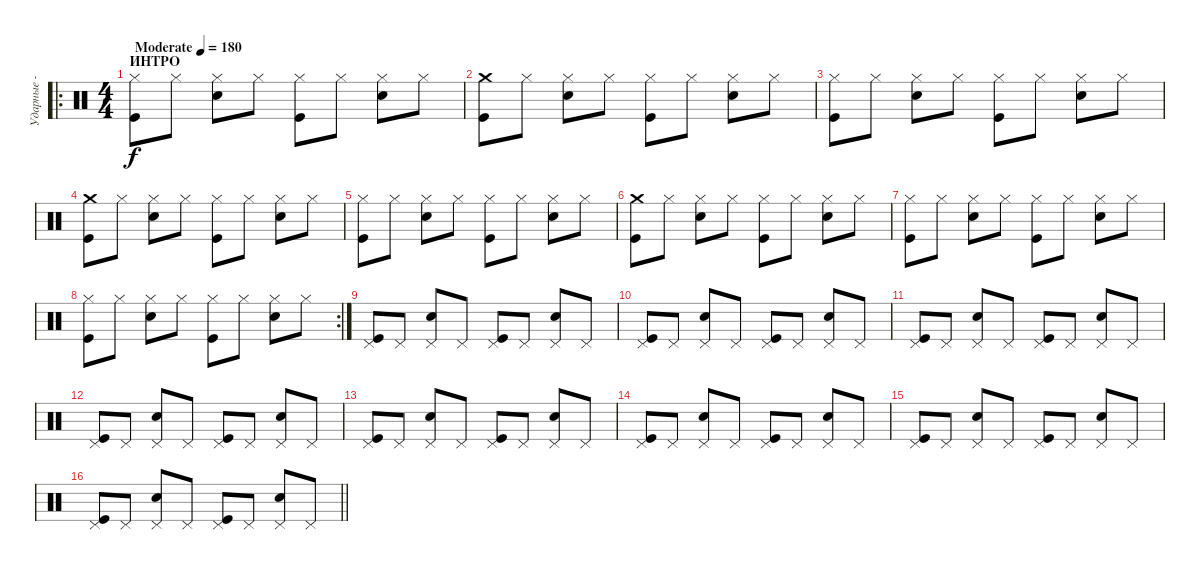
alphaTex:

\track ("Ударные - Томми Рамон" "Ударные - ") {instrument percussion}
\staff {score}
\articulation defaults
\ro
\ts (4 4)
\section ("" "ИНТРО")
\tempo (180 "Moderate")
\clef neutral
\ks c
("Hi-Hat (closed)" "Kick (hit)").8{dy f} "Hi-Hat (closed)".8 ("Hi-Hat (closed)" "Snare (hit) 2").8 "Hi-Hat (closed)".8 ("Hi-Hat (closed)" "Kick (hit)").8 "Hi-Hat (closed)".8 ("Hi-Hat (closed)" "Snare (hit) 2").8 "Hi-Hat (closed)".8 |
("Crash medium (hit)" "Kick (hit)").8 "Hi-Hat (closed)".8 ("Hi-Hat (closed)" "Snare (hit) 2").8 "Hi-Hat (closed)".8 ("Hi-Hat (closed)" "Kick (hit)").8 "Hi-Hat (closed)".8 ("Hi-Hat (closed)" "Snare (hit) 2").8 "Hi-Hat (closed)".8 |
("Hi-Hat (closed)" "Kick (hit)").8 "Hi-Hat (closed)".8 ("Hi-Hat (closed)" "Snare (hit) 2").8 "Hi-Hat (closed)".8 ("Hi-Hat (closed)" "Kick (hit)").8 "Hi-Hat (closed)".8 ("Hi-Hat (closed)" "Snare (hit) 2").8 "Hi-Hat (closed)".8 |
("Crash medium (hit)" "Kick (hit)").8 "Hi-Hat (closed)".8 ("Hi-Hat (closed)" "Snare (hit) 2").8 "Hi-Hat (closed)".8 ("Hi-Hat (closed)" "Kick (hit)").8 "Hi-Hat (closed)".8 ("Hi-Hat (closed)" "Snare (hit) 2").8 "Hi-Hat (closed)".8 |
("Hi-Hat (closed)" "Kick (hit)").8 "Hi-Hat (closed)".8 ("Hi-Hat (closed)" "Snare (hit) 2").8 "Hi-Hat (closed)".8 ("Hi-Hat (closed)" "Kick (hit)").8 "Hi-Hat (closed)".8 ("Hi-Hat (closed)" "Snare (hit) 2").8 "Hi-Hat (closed)".8 |
("Crash medium (hit)" "Kick (hit)").8 "Hi-Hat (closed)".8 ("Hi-Hat (closed)" "Snare (hit) 2").8 "Hi-Hat (closed)".8 ("Hi-Hat (closed)" "Kick (hit)").8 "Hi-Hat (closed)".8 ("Hi-Hat (closed)" "Snare (hit) 2").8 "Hi-Hat (closed)".8 |
("Hi-Hat (closed)" "Kick (hit)").8 "Hi-Hat (closed)".8 ("Hi-Hat (closed)" "Snare (hit) 2").8 "Hi-Hat (closed)".8 ("Hi-Hat (closed)" "Kick (hit)").8 "Hi-Hat (closed)".8 ("Hi-Hat (closed)" "Snare (hit) 2").8 "Hi-Hat (closed)".8 |
\rc 2
("Hi-Hat (closed)" "Kick (hit)").8 "Hi-Hat (closed)".8 ("Hi-Hat (closed)" "Snare (hit) 2").8 "Hi-Hat (closed)".8 ("Hi-Hat (closed)" "Kick (hit)").8 "Hi-Hat (closed)".8 ("Hi-Hat (closed)" "Snare (hit) 2").8 "Hi-Hat (closed)".8 |
("Pedal Hi-Hat (hit)" "Kick (hit)").8 "Pedal Hi-Hat (hit)".8 ("Pedal Hi-Hat (hit)" "Snare (hit) 2").8 "Pedal Hi-Hat (hit)".8 ("Pedal Hi-Hat (hit)" "Kick (hit)").8 "Pedal Hi-Hat (hit)".8 ("Pedal Hi-Hat (hit)" "Snare (hit) 2").8 "Pedal Hi-Hat (hit)".8 |
("Pedal Hi-Hat (hit)" "Kick (hit)").8 "Pedal Hi-Hat (hit)".8 ("Pedal Hi-Hat (hit)" "Snare (hit) 2").8 "Pedal Hi-Hat (hit)".8 ("Pedal Hi-Hat (hit)" "Kick (hit)").8 "Pedal Hi-Hat (hit)".8 ("Pedal Hi-Hat (hit)" "Snare (hit) 2").8 "Pedal Hi-Hat (hit)".8 |
("Pedal Hi-Hat (hit)" "Kick (hit)").8 "Pedal Hi-Hat (hit)".8 ("Pedal Hi-Hat (hit)" "Snare (hit) 2").8 "Pedal Hi-Hat (hit)".8 ("Pedal Hi-Hat (hit)" "Kick (hit)").8 "Pedal Hi-Hat (hit)".8 ("Pedal Hi-Hat (hit)" "Snare (hit) 2").8 "Pedal Hi-Hat (hit)".8 |
("Pedal Hi-Hat (hit)" "Kick (hit)").8 "Pedal Hi-Hat (hit)".8 ("Pedal Hi-Hat (hit)" "Snare (hit) 2").8 "Pedal Hi-Hat (hit)".8 ("Pedal Hi-Hat (hit)" "Kick (hit)").8 "Pedal Hi-Hat (hit)".8 ("Pedal Hi-Hat (hit)" "Snare (hit) 2").8 "Pedal Hi-Hat (hit)".8 |
("Pedal Hi-Hat (hit)" "Kick (hit)").8 "Pedal Hi-Hat (hit)".8 ("Pedal Hi-Hat (hit)" "Snare (hit) 2").8 "Pedal Hi-Hat (hit)".8 ("Pedal Hi-Hat (hit)" "Kick (hit)").8 "Pedal Hi-Hat (hit)".8 ("Pedal Hi-Hat (hit)" "Snare (hit) 2").8 "Pedal Hi-Hat (hit)".8 |
("Pedal Hi-Hat (hit)" "Kick (hit)").8 "Pedal Hi-Hat (hit)".8 ("Pedal Hi-Hat (hit)" "Snare (hit) 2").8 "Pedal Hi-Hat (hit)".8 ("Pedal Hi-Hat (hit)" "Kick (hit)").8 "Pedal Hi-Hat (hit)".8 ("Pedal Hi-Hat (hit)" "Snare (hit) 2").8 "Pedal Hi-Hat (hit)".8 |
("Pedal Hi-Hat (hit)" "Kick (hit)").8 "Pedal Hi-Hat (hit)".8 ("Pedal Hi-Hat (hit)" "Snare (hit) 2").8 "Pedal Hi-Hat (hit)".8 ("Pedal Hi-Hat (hit)" "Kick (hit)").8 "Pedal Hi-Hat (hit)".8 ("Pedal Hi-Hat (hit)" "Snare (hit) 2").8 "Pedal Hi-Hat (hit)".8 |
\barLineRight lightlight
("Pedal Hi-Hat (hit)" "Kick (hit)").8 "Pedal Hi-Hat (hit)".8 ("Pedal Hi-Hat (hit)" "Snare (hit) 2").8 "Pedal Hi-Hat (hit)".8 ("Pedal Hi-Hat (hit)" "Kick (hit)").8 "Pedal Hi-Hat (hit)".8 ("Pedal Hi-Hat (hit)" "Snare (hit) 2").8 "Pedal Hi-Hat (hit)".8
